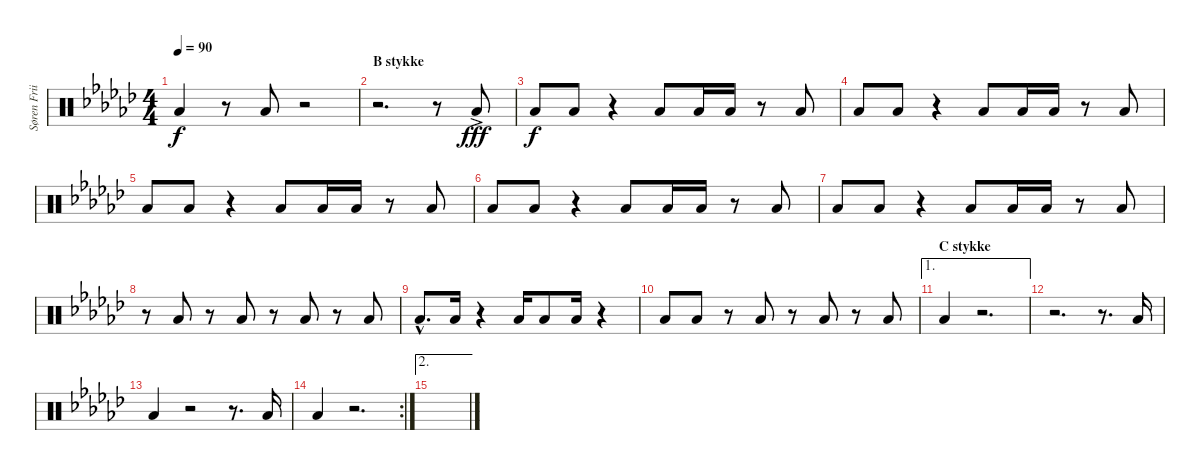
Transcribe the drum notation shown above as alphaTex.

\track ("Søren Friis (Drums)" "Søren Frii") {instrument percussion}
\staff {score}
\articulation defaults
\ts (4 4)
\tempo 90
\clef neutral
\ks gb "Low Floor Tom (hit)".4{dy f}
r.8 "Low Floor Tom (hit)".8 r.2 |
\section ("" "B stykke")
r.2{d} r.8 "Low Floor Tom (hit)"{ac}.8{dy fff} |
"Low Floor Tom (hit)".8{dy f} "Low Floor Tom (hit)".8 r.4 "Low Floor Tom (hit)".8 "Low Floor Tom (hit)".16 "Low Floor Tom (hit)".16 r.8 "Low Floor Tom (hit)".8 |
"Low Floor Tom (hit)".8 "Low Floor Tom (hit)".8 r.4 "Low Floor Tom (hit)".8 "Low Floor Tom (hit)".16 "Low Floor Tom (hit)".16 r.8 "Low Floor Tom (hit)".8 |
"Low Floor Tom (hit)".8 "Low Floor Tom (hit)".8 r.4 "Low Floor Tom (hit)".8 "Low Floor Tom (hit)".16 "Low Floor Tom (hit)".16 r.8 "Low Floor Tom (hit)".8 |
"Low Floor Tom (hit)".8 "Low Floor Tom (hit)".8 r.4 "Low Floor Tom (hit)".8 "Low Floor Tom (hit)".16 "Low Floor Tom (hit)".16 r.8 "Low Floor Tom (hit)".8 |
"Low Floor Tom (hit)".8 "Low Floor Tom (hit)".8 r.4 "Low Floor Tom (hit)".8 "Low Floor Tom (hit)".16 "Low Floor Tom (hit)".16 r.8 "Low Floor Tom (hit)".8 |
r.8 "Low Floor Tom (hit)".8 r.8 "Low Floor Tom (hit)".8 r.8 "Low Floor Tom (hit)".8 r.8 "Low Floor Tom (hit)".8 |
"Low Floor Tom (hit)"{hac}.8{d} "Low Floor Tom (hit)".16 r.4 "Low Floor Tom (hit)".16 "Low Floor Tom (hit)".8 "Low Floor Tom (hit)".16 r.4 |
"Low Floor Tom (hit)".8 "Low Floor Tom (hit)".8 r.8 "Low Floor Tom (hit)".8 r.8 "Low Floor Tom (hit)".8 r.8 "Low Floor Tom (hit)".8 |
\ae 1
\section ("" "C stykke")
"Low Floor Tom (hit)".4 r.2{d} |
r.2{d} r.8{d} "Low Floor Tom (hit)".16 |
"Low Floor Tom (hit)".4 r.2 r.8{d} "Low Floor Tom (hit)".16 |
\rc 2 "Low Floor Tom (hit)".4
r.2{d} |
\ae 2
